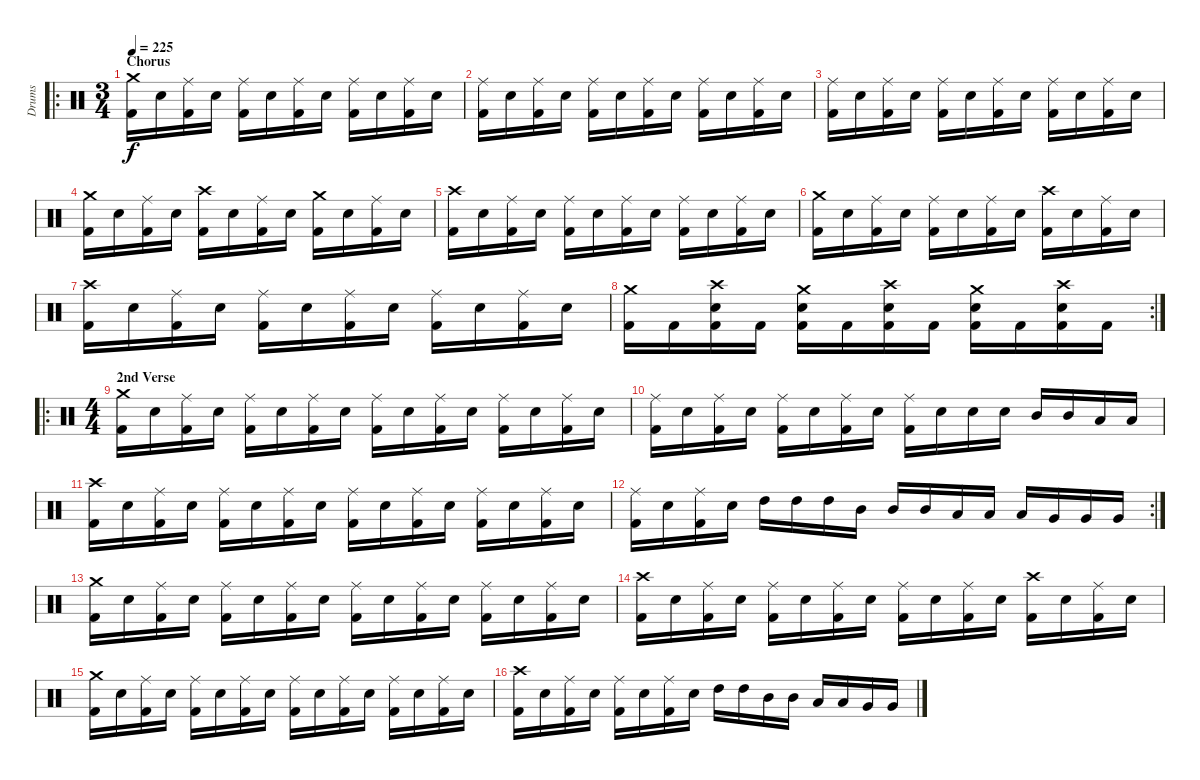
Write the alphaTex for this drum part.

\track ("Drums" "Drums") {instrument percussion}
\staff {score}
\articulation defaults
\ro
\ts (3 4)
\section ("" "Chorus")
\tempo 225
\clef neutral
\ks c
("Kick (hit) 2" "Crash medium (hit)").16{dy f} "Electric Snare (hit)".16 ("Kick (hit) 2" "Ride (middle)").16 "Electric Snare (hit)".16 ("Kick (hit) 2" "Ride (middle)").16 "Electric Snare (hit)".16 ("Kick (hit) 2" "Ride (middle)").16 "Electric Snare (hit)".16 ("Kick (hit) 2" "Ride (middle)").16 "Electric Snare (hit)".16 ("Kick (hit) 2" "Ride (middle)").16 "Electric Snare (hit)".16 |
("Kick (hit) 2" "Ride (middle)").16 "Electric Snare (hit)".16 ("Kick (hit) 2" "Ride (middle)").16 "Electric Snare (hit)".16 ("Kick (hit) 2" "Ride (middle)").16 "Electric Snare (hit)".16 ("Kick (hit) 2" "Ride (middle)").16 "Electric Snare (hit)".16 ("Kick (hit) 2" "Ride (middle)").16 "Electric Snare (hit)".16 ("Kick (hit) 2" "Ride (middle)").16 "Electric Snare (hit)".16 |
("Kick (hit) 2" "Ride (middle)").16 "Electric Snare (hit)".16 ("Kick (hit) 2" "Ride (middle)").16 "Electric Snare (hit)".16 ("Kick (hit) 2" "Ride (middle)").16 "Electric Snare (hit)".16 ("Kick (hit) 2" "Ride (middle)").16 "Electric Snare (hit)".16 ("Kick (hit) 2" "Ride (middle)").16 "Electric Snare (hit)".16 ("Kick (hit) 2" "Ride (middle)").16 "Electric Snare (hit)".16 |
("Kick (hit) 2" "Crash medium (hit)").16 "Electric Snare (hit)".16 ("Kick (hit) 2" "Ride (middle)").16 "Electric Snare (hit)".16 ("Kick (hit) 2" "Crash high (hit)").16 "Electric Snare (hit)".16 ("Kick (hit) 2" "Ride (middle)").16 "Electric Snare (hit)".16 ("Kick (hit) 2" "Crash medium (hit)").16 "Electric Snare (hit)".16 ("Kick (hit) 2" "Ride (middle)").16 "Electric Snare (hit)".16 |
("Kick (hit) 2" "Crash high (hit)").16 "Electric Snare (hit)".16 ("Kick (hit) 2" "Ride (middle)").16 "Electric Snare (hit)".16 ("Kick (hit) 2" "Ride (middle)").16 "Electric Snare (hit)".16 ("Kick (hit) 2" "Ride (middle)").16 "Electric Snare (hit)".16 ("Kick (hit) 2" "Ride (middle)").16 "Electric Snare (hit)".16 ("Kick (hit) 2" "Ride (middle)").16 "Electric Snare (hit)".16 |
("Kick (hit) 2" "Crash medium (hit)").16 "Electric Snare (hit)".16 ("Kick (hit) 2" "Ride (middle)").16 "Electric Snare (hit)".16 ("Kick (hit) 2" "Ride (middle)").16 "Electric Snare (hit)".16 ("Kick (hit) 2" "Ride (middle)").16 "Electric Snare (hit)".16 ("Kick (hit) 2" "Crash high (hit)").16 "Electric Snare (hit)".16 ("Kick (hit) 2" "Ride (middle)").16 "Electric Snare (hit)".16 |
("Kick (hit) 2" "Crash high (hit)").16 "Electric Snare (hit)".16 ("Kick (hit) 2" "Ride (middle)").16 "Electric Snare (hit)".16 ("Kick (hit) 2" "Ride (middle)").16 "Electric Snare (hit)".16 ("Kick (hit) 2" "Ride (middle)").16 "Electric Snare (hit)".16 ("Kick (hit) 2" "Ride (middle)").16 "Electric Snare (hit)".16 ("Kick (hit) 2" "Ride (middle)").16 "Electric Snare (hit)".16 |
\rc 2
("Kick (hit) 2" "Crash medium (hit)").16 "Kick (hit) 2".16 ("Kick (hit) 2" "Electric Snare (hit)" "Crash high (hit)").16 "Kick (hit) 2".16 ("Kick (hit) 2" "Electric Snare (hit)" "Crash medium (hit)").16 "Kick (hit) 2".16 ("Kick (hit) 2" "Electric Snare (hit)" "Crash high (hit)").16 "Kick (hit) 2".16 ("Kick (hit) 2" "Electric Snare (hit)" "Crash medium (hit)").16 "Kick (hit) 2".16 ("Kick (hit) 2" "Electric Snare (hit)" "Crash high (hit)").16 "Kick (hit) 2".16 |
\ro
\ts (4 4)
\section ("" "2nd Verse")
("Kick (hit) 2" "Crash medium (hit)").16 "Electric Snare (hit)".16 ("Kick (hit) 2" "Ride (middle)").16 "Electric Snare (hit)".16 ("Kick (hit) 2" "Ride (middle)").16 "Electric Snare (hit)".16 ("Kick (hit) 2" "Ride (middle)").16 "Electric Snare (hit)".16 ("Kick (hit) 2" "Ride (middle)").16 "Electric Snare (hit)".16 ("Kick (hit) 2" "Ride (middle)").16 "Electric Snare (hit)".16 ("Kick (hit) 2" "Ride (middle)").16 "Electric Snare (hit)".16 ("Kick (hit) 2" "Ride (middle)").16 "Electric Snare (hit)".16 |
("Kick (hit) 2" "Ride (middle)").16 "Electric Snare (hit)".16 ("Kick (hit) 2" "Ride (middle)").16 "Electric Snare (hit)".16 ("Kick (hit) 2" "Ride (middle)").16 "Electric Snare (hit)".16 ("Kick (hit) 2" "Ride (middle)").16 "Electric Snare (hit)".16 ("Kick (hit) 2" "Ride (middle)").16 "Electric Snare (hit)".16 "Electric Snare (hit)".16 "Electric Snare (hit)".16 "Mid Tom (hit)".16 "Mid Tom (hit)".16 "Low Tom (hit)".16 "Low Tom (hit)".16 |
("Kick (hit) 2" "Crash high (hit)").16 "Electric Snare (hit)".16 ("Kick (hit) 2" "Ride (middle)").16 "Electric Snare (hit)".16 ("Kick (hit) 2" "Ride (middle)").16 "Electric Snare (hit)".16 ("Kick (hit) 2" "Ride (middle)").16 "Electric Snare (hit)".16 ("Kick (hit) 2" "Ride (middle)").16 "Electric Snare (hit)".16 ("Kick (hit) 2" "Ride (middle)").16 "Electric Snare (hit)".16 ("Kick (hit) 2" "Ride (middle)").16 "Electric Snare (hit)".16 ("Kick (hit) 2" "Ride (middle)").16 "Electric Snare (hit)".16 |
\rc 2
("Kick (hit) 2" "Ride (middle)").16 "Electric Snare (hit)".16 ("Kick (hit) 2" "Ride (middle)").16 "Electric Snare (hit)".16 "High Tom (hit)".16 "High Tom (hit)".16 "High Tom (hit)".16 "Mid Tom (hit)".16 "Mid Tom (hit)".16 "Mid Tom (hit)".16 "Low Tom (hit)".16 "Low Tom (hit)".16 "Low Tom (hit)".16 "Very Low Tom (hit)".16 "Very Low Tom (hit)".16 "Very Low Tom (hit)".16 |
("Kick (hit) 2" "Crash medium (hit)").16 "Electric Snare (hit)".16 ("Kick (hit) 2" "Ride (middle)").16 "Electric Snare (hit)".16 ("Kick (hit) 2" "Ride (middle)").16 "Electric Snare (hit)".16 ("Kick (hit) 2" "Ride (middle)").16 "Electric Snare (hit)".16 ("Kick (hit) 2" "Ride (middle)").16 "Electric Snare (hit)".16 ("Kick (hit) 2" "Ride (middle)").16 "Electric Snare (hit)".16 ("Kick (hit) 2" "Ride (middle)").16 "Electric Snare (hit)".16 ("Kick (hit) 2" "Ride (middle)").16 "Electric Snare (hit)".16 |
("Kick (hit) 2" "Crash high (hit)").16 "Electric Snare (hit)".16 ("Kick (hit) 2" "Ride (middle)").16 "Electric Snare (hit)".16 ("Kick (hit) 2" "Ride (middle)").16 "Electric Snare (hit)".16 ("Kick (hit) 2" "Ride (middle)").16 "Electric Snare (hit)".16 ("Kick (hit) 2" "Ride (middle)").16 "Electric Snare (hit)".16 ("Kick (hit) 2" "Ride (middle)").16 "Electric Snare (hit)".16 ("Kick (hit) 2" "Crash high (hit)").16 "Electric Snare (hit)".16 ("Kick (hit) 2" "Ride (middle)").16 "Electric Snare (hit)".16 |
("Kick (hit) 2" "Crash medium (hit)").16 "Electric Snare (hit)".16 ("Kick (hit) 2" "Ride (middle)").16 "Electric Snare (hit)".16 ("Kick (hit) 2" "Ride (middle)").16 "Electric Snare (hit)".16 ("Kick (hit) 2" "Ride (middle)").16 "Electric Snare (hit)".16 ("Kick (hit) 2" "Ride (middle)").16 "Electric Snare (hit)".16 ("Kick (hit) 2" "Ride (middle)").16 "Electric Snare (hit)".16 ("Kick (hit) 2" "Ride (middle)").16 "Electric Snare (hit)".16 ("Kick (hit) 2" "Ride (middle)").16 "Electric Snare (hit)".16 |
("Kick (hit) 2" "Crash high (hit)").16 "Electric Snare (hit)".16 ("Kick (hit) 2" "Ride (middle)").16 "Electric Snare (hit)".16 ("Kick (hit) 2" "Ride (middle)").16 "Electric Snare (hit)".16 ("Kick (hit) 2" "Ride (middle)").16 "Electric Snare (hit)".16 "High Tom (hit)".16 "High Tom (hit)".16 "Mid Tom (hit)".16 "Mid Tom (hit)".16 "Low Tom (hit)".16 "Low Tom (hit)".16 "Very Low Tom (hit)".16 "Very Low Tom (hit)".16
